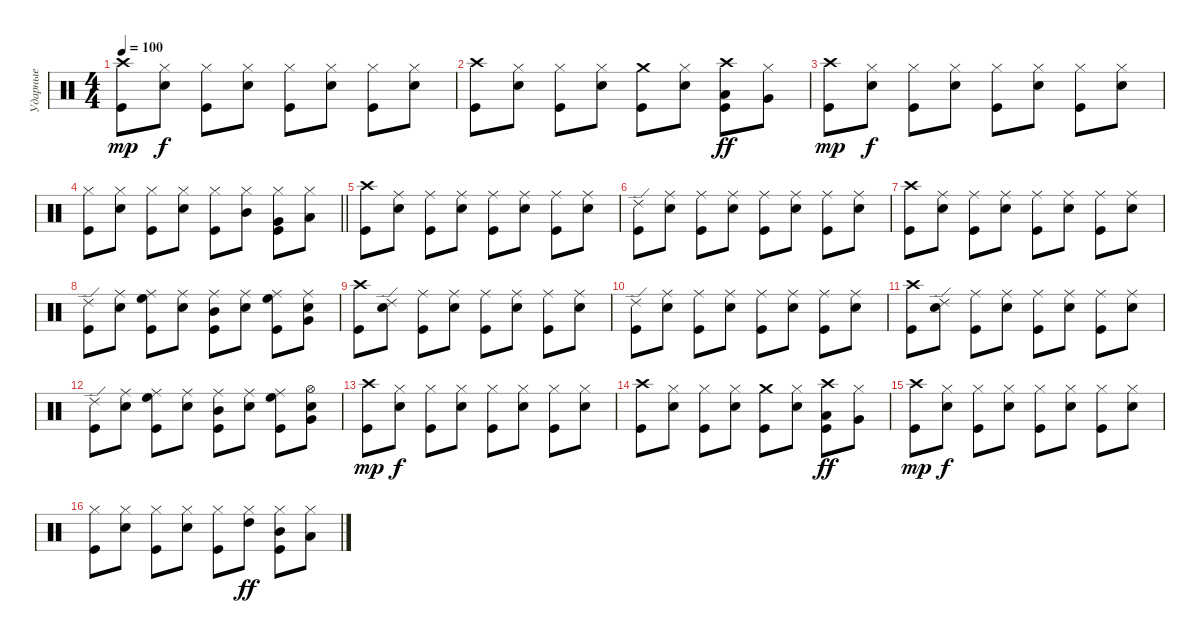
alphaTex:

\track ("Ударные" "Ударные") {instrument percussion}
\staff {score}
\articulation defaults
\ts (4 4)
\tempo 100
\clef neutral
\ks c
("Kick (hit)" "Crash high (hit)").8{dy mp} ("Hi-Hat (closed)" "Snare (hit) 2").8{dy f} ("Hi-Hat (closed)" "Kick (hit)").8 ("Hi-Hat (closed)" "Snare (hit) 2").8 ("Hi-Hat (closed)" "Kick (hit)").8 ("Hi-Hat (closed)" "Snare (hit) 2").8 ("Hi-Hat (closed)" "Kick (hit)").8 ("Hi-Hat (closed)" "Snare (hit) 2").8 |
("Crash high (hit)" "Kick (hit)").8 ("Hi-Hat (closed)" "Snare (hit) 2").8 ("Hi-Hat (closed)" "Kick (hit)").8 ("Hi-Hat (closed)" "Snare (hit) 2").8 ("Crash medium (hit)" "Kick (hit)").8 ("Hi-Hat (closed)" "Snare (hit) 2").8 ("Crash high (hit)" "Kick (hit)" "Low Tom (hit)").8{dy ff} ("Hi-Hat (closed)" "Very Low Tom (hit)").8 |
("Kick (hit)" "Crash high (hit)").8{dy mp} ("Hi-Hat (closed)" "Snare (hit) 2").8{dy f} ("Hi-Hat (closed)" "Kick (hit)").8 ("Hi-Hat (closed)" "Snare (hit) 2").8 ("Hi-Hat (closed)" "Kick (hit)").8 ("Hi-Hat (closed)" "Snare (hit) 2").8 ("Hi-Hat (closed)" "Kick (hit)").8 ("Hi-Hat (closed)" "Snare (hit) 2").8 |
\barLineRight lightlight
("Hi-Hat (closed)" "Kick (hit)").8 ("Hi-Hat (closed)" "Snare (hit) 2").8 ("Hi-Hat (closed)" "Kick (hit)").8 ("Hi-Hat (closed)" "Snare (hit) 2").8 ("Hi-Hat (closed)" "Kick (hit)").8 ("Hi-Hat (closed)" "Mid Tom (hit)").8 ("Hi-Hat (closed)" "Kick (hit)" "Very Low Tom (hit)").8 ("Hi-Hat (closed)" "Low Floor Tom (hit)").8 |
("Kick (hit)" "Crash high (hit)").8 ("Ride (middle)" "Snare (hit) 2").8 ("Ride (middle)" "Kick (hit)").8 ("Ride (middle)" "Snare (hit) 2").8 ("Ride (middle)" "Kick (hit)").8 ("Ride (middle)" "Snare (hit) 2").8 ("Ride (middle)" "Kick (hit)").8 ("Ride (middle)" "Snare (hit) 2").8 |
("Ride (edge) 2" "Kick (hit)").8 ("Ride (middle)" "Snare (hit) 2").8 ("Ride (middle)" "Kick (hit)").8 ("Ride (middle)" "Snare (hit) 2").8 ("Ride (middle)" "Kick (hit)").8 ("Ride (middle)" "Snare (hit) 2").8 ("Ride (middle)" "Kick (hit)").8 ("Ride (middle)" "Snare (hit) 2").8 |
("Kick (hit)" "Crash high (hit)").8 ("Ride (middle)" "Snare (hit) 2").8 ("Ride (middle)" "Kick (hit)").8 ("Ride (middle)" "Snare (hit) 2").8 ("Ride (middle)" "Kick (hit)").8 ("Ride (middle)" "Snare (hit) 2").8 ("Ride (middle)" "Kick (hit)").8 ("Ride (middle)" "Snare (hit) 2").8 |
("Ride (edge) 2" "Kick (hit)").8 ("Ride (middle)" "Snare (hit) 2").8 ("Ride (middle)" "Kick (hit)" "High Floor Tom (hit)").8 ("Ride (middle)" "Snare (hit) 2").8 ("Ride (middle)" "Kick (hit)" "Mid Tom (hit)").8 ("Ride (middle)" "Snare (hit) 2").8 ("Ride (middle)" "Kick (hit)" "High Floor Tom (hit)").8 ("Ride (middle)" "Snare (hit) 2" "Very Low Tom (hit)").8 |
("Crash high (hit)" "Kick (hit)").8 ("Ride (edge) 2" "Snare (hit) 2").8 ("Ride (middle)" "Kick (hit)").8 ("Ride (middle)" "Snare (hit) 2").8 ("Ride (middle)" "Kick (hit)").8 ("Snare (hit) 2" "Ride (middle)").8 ("Kick (hit)" "Ride (middle)").8 ("Snare (hit) 2" "Ride (middle)").8 |
("Ride (edge) 2" "Kick (hit)").8 ("Ride (middle)" "Snare (hit) 2").8 ("Ride (middle)" "Kick (hit)").8 ("Ride (middle)" "Snare (hit) 2").8 ("Ride (middle)" "Kick (hit)").8 ("Ride (middle)" "Snare (hit) 2").8 ("Ride (middle)" "Kick (hit)").8 ("Ride (middle)" "Snare (hit) 2").8 |
("Crash high (hit)" "Kick (hit)").8 ("Ride (edge) 2" "Snare (hit) 2").8 ("Ride (middle)" "Kick (hit)").8 ("Ride (middle)" "Snare (hit) 2").8 ("Ride (middle)" "Kick (hit)").8 ("Snare (hit) 2" "Ride (middle)").8 ("Kick (hit)" "Ride (middle)").8 ("Snare (hit) 2" "Ride (middle)").8 |
("Ride (edge) 2" "Kick (hit)").8 ("Ride (middle)" "Snare (hit) 2").8 ("Ride (middle)" "Kick (hit)" "High Floor Tom (hit)").8 ("Ride (middle)" "Snare (hit) 2").8 ("Ride (middle)" "Kick (hit)" "Mid Tom (hit)").8 ("Ride (middle)" "Snare (hit) 2").8 ("Ride (middle)" "Kick (hit)" "High Floor Tom (hit)").8 ("Hi-Hat (open)" "Snare (hit) 2" "Very Low Tom (hit)").8 |
("Kick (hit)" "Crash high (hit)").8{dy mp} ("Hi-Hat (closed)" "Snare (hit) 2").8{dy f} ("Hi-Hat (closed)" "Kick (hit)").8 ("Hi-Hat (closed)" "Snare (hit) 2").8 ("Hi-Hat (closed)" "Kick (hit)").8 ("Hi-Hat (closed)" "Snare (hit) 2").8 ("Hi-Hat (closed)" "Kick (hit)").8 ("Hi-Hat (closed)" "Snare (hit) 2").8 |
("Crash high (hit)" "Kick (hit)").8 ("Hi-Hat (closed)" "Snare (hit) 2").8 ("Hi-Hat (closed)" "Kick (hit)").8 ("Hi-Hat (closed)" "Snare (hit) 2").8 ("Crash medium (hit)" "Kick (hit)").8 ("Hi-Hat (closed)" "Snare (hit) 2").8 ("Crash high (hit)" "Kick (hit)" "Low Tom (hit)").8{dy ff} ("Hi-Hat (closed)" "Very Low Tom (hit)").8 |
("Kick (hit)" "Crash high (hit)").8{dy mp} ("Hi-Hat (closed)" "Snare (hit) 2").8{dy f} ("Hi-Hat (closed)" "Kick (hit)").8 ("Hi-Hat (closed)" "Snare (hit) 2").8 ("Hi-Hat (closed)" "Kick (hit)").8 ("Hi-Hat (closed)" "Snare (hit) 2").8 ("Hi-Hat (closed)" "Kick (hit)").8 ("Hi-Hat (closed)" "Snare (hit) 2").8 |
("Hi-Hat (closed)" "Kick (hit)").8 ("Hi-Hat (closed)" "Snare (hit) 2").8 ("Hi-Hat (closed)" "Kick (hit)").8 ("Hi-Hat (closed)" "Snare (hit) 2").8 ("Hi-Hat (closed)" "Kick (hit)").8 ("Hi-Hat (closed)" "High Tom (hit)").8{dy ff} ("Hi-Hat (closed)" "Kick (hit)" "Mid Tom (hit)").8 ("Hi-Hat (closed)" "Low Tom (hit)").8
